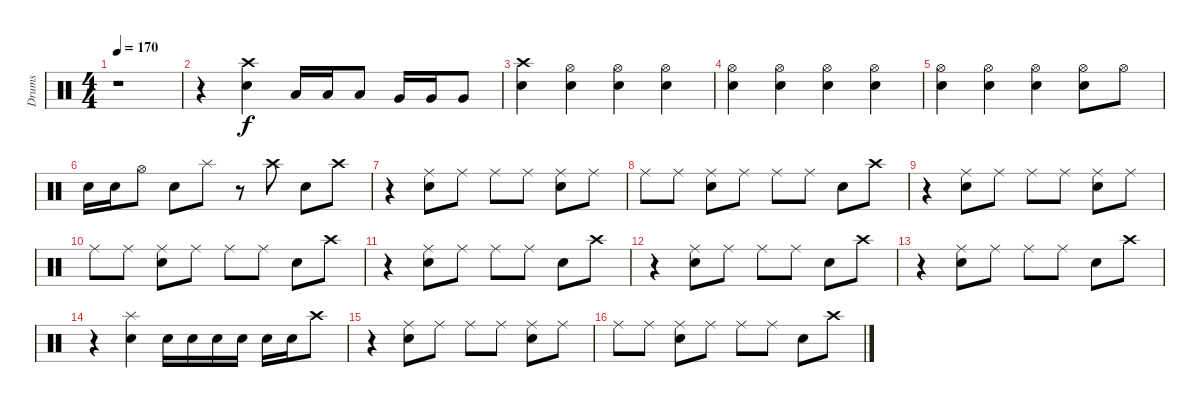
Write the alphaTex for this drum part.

\track ("Drums" "Drums") {instrument percussion}
\staff {score}
\articulation defaults
\ts (4 4)
\tempo 170
\clef neutral
\ks c
r.1{dy f} |
r.4 ("Crash high (hit)" "Snare (hit) 2").4 "Low Tom (hit)".16 "Low Tom (hit)".16 "Low Tom (hit)".8 "Very Low Tom (hit)".16 "Very Low Tom (hit)".16 "Very Low Tom (hit)".8 |
("Crash high (hit)" "Snare (hit) 2").4 ("Hi-Hat (open)" "Snare (hit) 2").4 ("Hi-Hat (open)" "Snare (hit) 2").4 ("Hi-Hat (open)" "Snare (hit) 2").4 |
("Hi-Hat (open)" "Snare (hit) 2").4 ("Hi-Hat (open)" "Snare (hit) 2").4 ("Hi-Hat (open)" "Snare (hit) 2").4 ("Hi-Hat (open)" "Snare (hit) 2").4 |
("Hi-Hat (open)" "Snare (hit) 2").4 ("Hi-Hat (open)" "Snare (hit) 2").4 ("Hi-Hat (open)" "Snare (hit) 2").4 ("Hi-Hat (open)" "Snare (hit) 2").8 "Hi-Hat (open)".8 |
"Snare (hit) 2".16 "Snare (hit) 2".16 "Hi-Hat (open)".8 "Snare (hit) 2".8 "Splash (hit)".8 r.8 "Crash high (hit)".8 "Snare (hit) 2".8 "Crash high (hit)".8 |
r.4 ("Ride (middle)" "Snare (hit) 2").8 "Ride (middle)".8 "Ride (middle)".8 "Ride (middle)".8 ("Ride (middle)" "Snare (hit) 2").8 "Ride (middle)".8 |
"Ride (middle)".8 "Ride (middle)".8 ("Ride (middle)" "Snare (hit) 2").8 "Ride (middle)".8 "Ride (middle)".8 "Ride (middle)".8 "Snare (hit) 2".8 "Crash high (hit)".8 |
r.4 ("Ride (middle)" "Snare (hit) 2").8 "Ride (middle)".8 "Ride (middle)".8 "Ride (middle)".8 ("Ride (middle)" "Snare (hit) 2").8 "Ride (middle)".8 |
"Ride (middle)".8 "Ride (middle)".8 ("Ride (middle)" "Snare (hit) 2").8 "Ride (middle)".8 "Ride (middle)".8 "Ride (middle)".8 "Snare (hit) 2".8 "Crash high (hit)".8 |
r.4 ("Ride (middle)" "Snare (hit) 2").8 "Ride (middle)".8 "Ride (middle)".8 "Ride (middle)".8 "Snare (hit) 2".8 "Crash high (hit)".8 |
r.4 ("Ride (middle)" "Snare (hit) 2").8 "Ride (middle)".8 "Ride (middle)".8 "Ride (middle)".8 "Snare (hit) 2".8 "Crash high (hit)".8 |
r.4 ("Ride (middle)" "Snare (hit) 2").8 "Ride (middle)".8 "Ride (middle)".8 "Ride (middle)".8 "Snare (hit) 2".8 "Crash high (hit)".8 |
r.4 ("Splash (hit)" "Snare (hit) 2").4 "Snare (hit) 2".16 "Snare (hit) 2".16 "Snare (hit) 2".16 "Snare (hit) 2".16 "Snare (hit) 2".16 "Snare (hit) 2".16 "Crash high (hit)".8 |
r.4 ("Ride (middle)" "Snare (hit) 2").8 "Ride (middle)".8 "Ride (middle)".8 "Ride (middle)".8 ("Ride (middle)" "Snare (hit) 2").8 "Ride (middle)".8 |
"Ride (middle)".8 "Ride (middle)".8 ("Ride (middle)" "Snare (hit) 2").8 "Ride (middle)".8 "Ride (middle)".8 "Ride (middle)".8 "Snare (hit) 2".8 "Crash high (hit)".8
